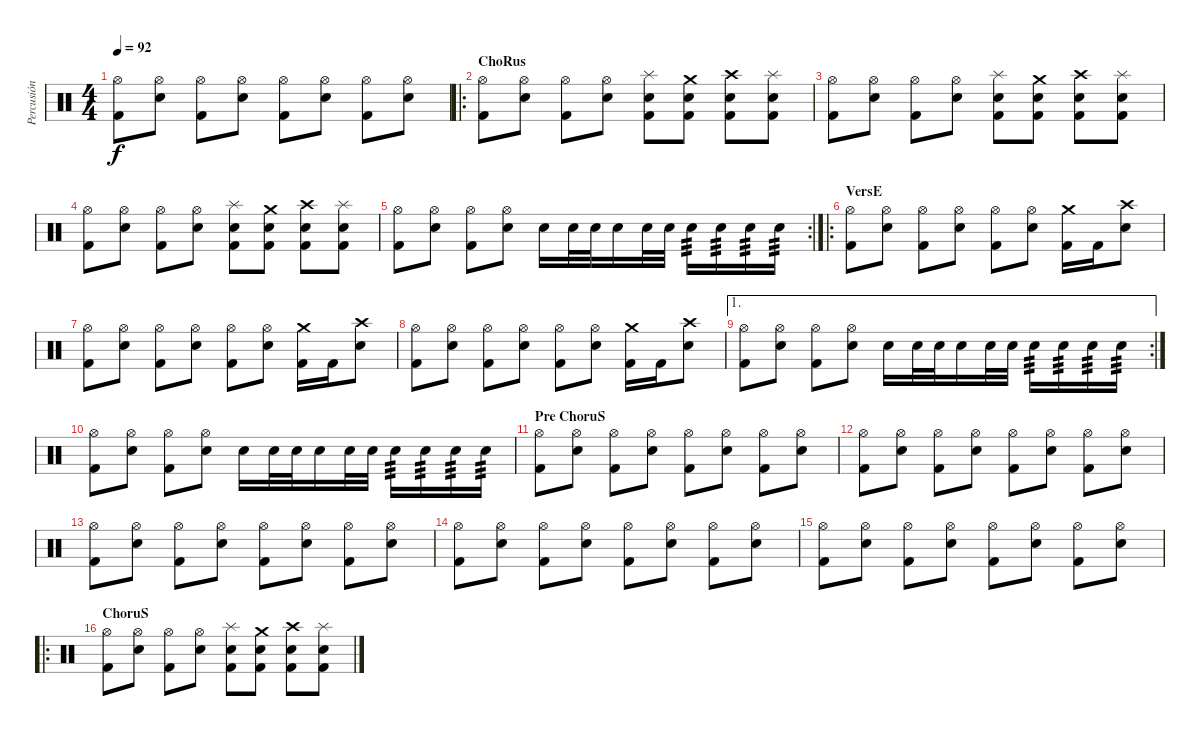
\track ("Percusión" "Percusión") {instrument percussion}
\staff {score}
\articulation defaults
\ts (4 4)
\tempo 92
\clef neutral
\ks c
("Hi-Hat (open)" "Kick (hit) 2").8{dy f} ("Hi-Hat (open)" "Electric Snare (hit)").8 ("Hi-Hat (open)" "Kick (hit) 2").8 ("Hi-Hat (open)" "Electric Snare (hit)").8 ("Hi-Hat (open)" "Kick (hit) 2").8 ("Hi-Hat (open)" "Electric Snare (hit)").8 ("Hi-Hat (open)" "Kick (hit) 2").8 ("Hi-Hat (open)" "Electric Snare (hit)").8 |
\ro
\section ("" "ChoRus")
("Hi-Hat (open)" "Kick (hit) 2").8 ("Hi-Hat (open)" "Electric Snare (hit)").8 ("Hi-Hat (open)" "Kick (hit) 2").8 ("Hi-Hat (open)" "Electric Snare (hit)").8 ("Splash (hit)" "Electric Snare (hit)" "Kick (hit) 2").8 ("Crash medium (hit)" "Kick (hit) 2" "Electric Snare (hit)").8 ("Crash high (hit)" "Electric Snare (hit)" "Kick (hit) 2").8 ("Splash (hit)" "Kick (hit) 2" "Electric Snare (hit)").8 |
("Hi-Hat (open)" "Kick (hit) 2").8 ("Hi-Hat (open)" "Electric Snare (hit)").8 ("Hi-Hat (open)" "Kick (hit) 2").8 ("Hi-Hat (open)" "Electric Snare (hit)").8 ("Splash (hit)" "Electric Snare (hit)" "Kick (hit) 2").8 ("Crash medium (hit)" "Kick (hit) 2" "Electric Snare (hit)").8 ("Crash high (hit)" "Electric Snare (hit)" "Kick (hit) 2").8 ("Splash (hit)" "Kick (hit) 2" "Electric Snare (hit)").8 |
("Hi-Hat (open)" "Kick (hit) 2").8 ("Hi-Hat (open)" "Electric Snare (hit)").8 ("Hi-Hat (open)" "Kick (hit) 2").8 ("Hi-Hat (open)" "Electric Snare (hit)").8 ("Splash (hit)" "Electric Snare (hit)" "Kick (hit) 2").8 ("Crash medium (hit)" "Kick (hit) 2" "Electric Snare (hit)").8 ("Crash high (hit)" "Electric Snare (hit)" "Kick (hit) 2").8 ("Splash (hit)" "Kick (hit) 2" "Electric Snare (hit)").8 |
\rc 2
("Hi-Hat (open)" "Kick (hit) 2").8 ("Hi-Hat (open)" "Electric Snare (hit)").8 ("Hi-Hat (open)" "Kick (hit) 2").8 ("Hi-Hat (open)" "Electric Snare (hit)").8 "Electric Snare (hit)".16 "Electric Snare (hit)".32 "Electric Snare (hit)".32 "Electric Snare (hit)".16 "Electric Snare (hit)".32 "Electric Snare (hit)".32 "Electric Snare (hit)".16{tp 3} "Electric Snare (hit)".16{tp 3} "Electric Snare (hit)".16{tp 3} "Electric Snare (hit)".16{tp 3} |
\ro
\section ("" "VersE")
("Hi-Hat (open)" "Kick (hit) 2").8 ("Hi-Hat (open)" "Electric Snare (hit)").8 ("Hi-Hat (open)" "Kick (hit) 2").8 ("Hi-Hat (open)" "Electric Snare (hit)").8 ("Hi-Hat (open)" "Kick (hit) 2").8 ("Hi-Hat (open)" "Electric Snare (hit)").8 ("Crash medium (hit)" "Kick (hit) 2").16 "Kick (hit) 2".16 ("Crash high (hit)" "Electric Snare (hit)").8 |
("Hi-Hat (open)" "Kick (hit) 2").8 ("Hi-Hat (open)" "Electric Snare (hit)").8 ("Hi-Hat (open)" "Kick (hit) 2").8 ("Hi-Hat (open)" "Electric Snare (hit)").8 ("Hi-Hat (open)" "Kick (hit) 2").8 ("Hi-Hat (open)" "Electric Snare (hit)").8 ("Crash medium (hit)" "Kick (hit) 2").16 "Kick (hit) 2".16 ("Crash high (hit)" "Electric Snare (hit)").8 |
("Hi-Hat (open)" "Kick (hit) 2").8 ("Hi-Hat (open)" "Electric Snare (hit)").8 ("Hi-Hat (open)" "Kick (hit) 2").8 ("Hi-Hat (open)" "Electric Snare (hit)").8 ("Hi-Hat (open)" "Kick (hit) 2").8 ("Hi-Hat (open)" "Electric Snare (hit)").8 ("Crash medium (hit)" "Kick (hit) 2").16 "Kick (hit) 2".16 ("Crash high (hit)" "Electric Snare (hit)").8 |
\ae 1
\rc 2
("Hi-Hat (open)" "Kick (hit) 2").8 ("Hi-Hat (open)" "Electric Snare (hit)").8 ("Hi-Hat (open)" "Kick (hit) 2").8 ("Hi-Hat (open)" "Electric Snare (hit)").8 "Electric Snare (hit)".16 "Electric Snare (hit)".32 "Electric Snare (hit)".32 "Electric Snare (hit)".16 "Electric Snare (hit)".32 "Electric Snare (hit)".32 "Electric Snare (hit)".16{tp 3} "Electric Snare (hit)".16{tp 3} "Electric Snare (hit)".16{tp 3} "Electric Snare (hit)".16{tp 3} |
("Hi-Hat (open)" "Kick (hit) 2").8 ("Hi-Hat (open)" "Electric Snare (hit)").8 ("Hi-Hat (open)" "Kick (hit) 2").8 ("Hi-Hat (open)" "Electric Snare (hit)").8 "Electric Snare (hit)".16 "Electric Snare (hit)".32 "Electric Snare (hit)".32 "Electric Snare (hit)".16 "Electric Snare (hit)".32 "Electric Snare (hit)".32 "Electric Snare (hit)".16{tp 3} "Electric Snare (hit)".16{tp 3} "Electric Snare (hit)".16{tp 3} "Electric Snare (hit)".16{tp 3} |
\section ("" "Pre ChoruS")
("Hi-Hat (open)" "Kick (hit) 2").8 ("Hi-Hat (open)" "Electric Snare (hit)").8 ("Hi-Hat (open)" "Kick (hit) 2").8 ("Hi-Hat (open)" "Electric Snare (hit)").8 ("Hi-Hat (open)" "Kick (hit) 2").8 ("Hi-Hat (open)" "Electric Snare (hit)").8 ("Hi-Hat (open)" "Kick (hit) 2").8 ("Hi-Hat (open)" "Electric Snare (hit)").8 |
("Hi-Hat (open)" "Kick (hit) 2").8 ("Hi-Hat (open)" "Electric Snare (hit)").8 ("Hi-Hat (open)" "Kick (hit) 2").8 ("Hi-Hat (open)" "Electric Snare (hit)").8 ("Hi-Hat (open)" "Kick (hit) 2").8 ("Hi-Hat (open)" "Electric Snare (hit)").8 ("Hi-Hat (open)" "Kick (hit) 2").8 ("Hi-Hat (open)" "Electric Snare (hit)").8 |
("Hi-Hat (open)" "Kick (hit) 2").8 ("Hi-Hat (open)" "Electric Snare (hit)").8 ("Hi-Hat (open)" "Kick (hit) 2").8 ("Hi-Hat (open)" "Electric Snare (hit)").8 ("Hi-Hat (open)" "Kick (hit) 2").8 ("Hi-Hat (open)" "Electric Snare (hit)").8 ("Hi-Hat (open)" "Kick (hit) 2").8 ("Hi-Hat (open)" "Electric Snare (hit)").8 |
("Hi-Hat (open)" "Kick (hit) 2").8 ("Hi-Hat (open)" "Electric Snare (hit)").8 ("Hi-Hat (open)" "Kick (hit) 2").8 ("Hi-Hat (open)" "Electric Snare (hit)").8 ("Hi-Hat (open)" "Kick (hit) 2").8 ("Hi-Hat (open)" "Electric Snare (hit)").8 ("Hi-Hat (open)" "Kick (hit) 2").8 ("Hi-Hat (open)" "Electric Snare (hit)").8 |
("Hi-Hat (open)" "Kick (hit) 2").8 ("Hi-Hat (open)" "Electric Snare (hit)").8 ("Hi-Hat (open)" "Kick (hit) 2").8 ("Hi-Hat (open)" "Electric Snare (hit)").8 ("Hi-Hat (open)" "Kick (hit) 2").8 ("Hi-Hat (open)" "Electric Snare (hit)").8 ("Hi-Hat (open)" "Kick (hit) 2").8 ("Hi-Hat (open)" "Electric Snare (hit)").8 |
\ro
\section ("" "ChoruS")
("Hi-Hat (open)" "Kick (hit) 2").8 ("Hi-Hat (open)" "Electric Snare (hit)").8 ("Hi-Hat (open)" "Kick (hit) 2").8 ("Hi-Hat (open)" "Electric Snare (hit)").8 ("Splash (hit)" "Electric Snare (hit)" "Kick (hit) 2").8 ("Crash medium (hit)" "Kick (hit) 2" "Electric Snare (hit)").8 ("Crash high (hit)" "Electric Snare (hit)" "Kick (hit) 2").8 ("Splash (hit)" "Kick (hit) 2" "Electric Snare (hit)").8
